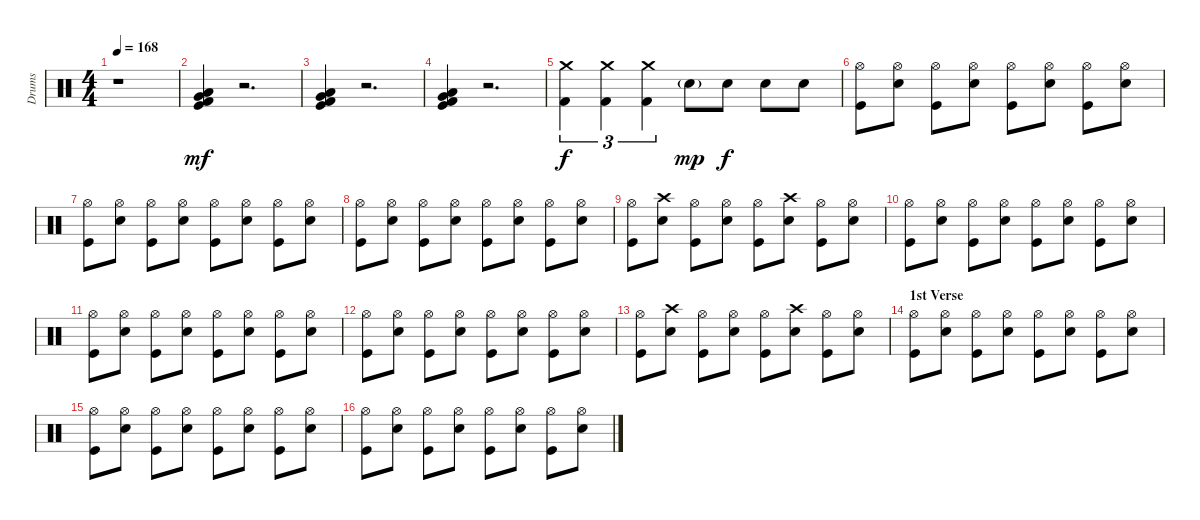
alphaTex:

\track ("Drums" "Drums") {instrument percussion}
\staff {score}
\articulation defaults
\ts (4 4)
\tempo 168
\clef neutral
\ks c
r.1{dy f} |
("Kick (hit)" "Very Low Tom (hit)" "Low Floor Tom (hit)" "Kick (hit) 2").4{dy mf} r.2{d} |
("Kick (hit)" "Very Low Tom (hit)" "Low Floor Tom (hit)" "Kick (hit) 2").4 r.2{d} |
("Kick (hit)" "Very Low Tom (hit)" "Low Floor Tom (hit)" "Kick (hit) 2").4 r.2{d} |
("Crash medium (hit)" "Kick (hit) 2").4{tu (3 2) dy f} ("Crash medium (hit)" "Kick (hit) 2").4{tu (3 2)} ("Crash medium (hit)" "Kick (hit) 2").4{tu (3 2)} "Snare (hit) 2"{g}.8{dy mp} "Snare (hit) 2".8{dy f} "Snare (hit) 2".8 "Snare (hit) 2".8 |
("Hi-Hat (open)" "Kick (hit)").8 ("Hi-Hat (open)" "Snare (hit) 2").8 ("Hi-Hat (open)" "Kick (hit)").8 ("Hi-Hat (open)" "Snare (hit) 2").8 ("Hi-Hat (open)" "Kick (hit)").8 ("Hi-Hat (open)" "Snare (hit) 2").8 ("Hi-Hat (open)" "Kick (hit)").8 ("Hi-Hat (open)" "Snare (hit) 2").8 |
("Hi-Hat (open)" "Kick (hit)").8 ("Hi-Hat (open)" "Snare (hit) 2").8 ("Hi-Hat (open)" "Kick (hit)").8 ("Hi-Hat (open)" "Snare (hit) 2").8 ("Hi-Hat (open)" "Kick (hit)").8 ("Hi-Hat (open)" "Snare (hit) 2").8 ("Hi-Hat (open)" "Kick (hit)").8 ("Hi-Hat (open)" "Snare (hit) 2").8 |
("Hi-Hat (open)" "Kick (hit)").8 ("Hi-Hat (open)" "Snare (hit) 2").8 ("Hi-Hat (open)" "Kick (hit)").8 ("Hi-Hat (open)" "Snare (hit) 2").8 ("Hi-Hat (open)" "Kick (hit)").8 ("Hi-Hat (open)" "Snare (hit) 2").8 ("Hi-Hat (open)" "Kick (hit)").8 ("Hi-Hat (open)" "Snare (hit) 2").8 |
("Hi-Hat (open)" "Kick (hit)").8 ("Crash high (hit)" "Snare (hit) 2").8 ("Hi-Hat (open)" "Kick (hit)").8 ("Hi-Hat (open)" "Snare (hit) 2").8 ("Hi-Hat (open)" "Kick (hit)").8 ("Crash high (hit)" "Snare (hit) 2").8 ("Hi-Hat (open)" "Kick (hit)").8 ("Hi-Hat (open)" "Snare (hit) 2").8 |
("Hi-Hat (open)" "Kick (hit)").8 ("Hi-Hat (open)" "Snare (hit) 2").8 ("Hi-Hat (open)" "Kick (hit)").8 ("Hi-Hat (open)" "Snare (hit) 2").8 ("Hi-Hat (open)" "Kick (hit)").8 ("Hi-Hat (open)" "Snare (hit) 2").8 ("Hi-Hat (open)" "Kick (hit)").8 ("Hi-Hat (open)" "Snare (hit) 2").8 |
("Hi-Hat (open)" "Kick (hit)").8 ("Hi-Hat (open)" "Snare (hit) 2").8 ("Hi-Hat (open)" "Kick (hit)").8 ("Hi-Hat (open)" "Snare (hit) 2").8 ("Hi-Hat (open)" "Kick (hit)").8 ("Hi-Hat (open)" "Snare (hit) 2").8 ("Hi-Hat (open)" "Kick (hit)").8 ("Hi-Hat (open)" "Snare (hit) 2").8 |
("Hi-Hat (open)" "Kick (hit)").8 ("Hi-Hat (open)" "Snare (hit) 2").8 ("Hi-Hat (open)" "Kick (hit)").8 ("Hi-Hat (open)" "Snare (hit) 2").8 ("Hi-Hat (open)" "Kick (hit)").8 ("Hi-Hat (open)" "Snare (hit) 2").8 ("Hi-Hat (open)" "Kick (hit)").8 ("Hi-Hat (open)" "Snare (hit) 2").8 |
("Hi-Hat (open)" "Kick (hit)").8 ("Crash high (hit)" "Snare (hit) 2").8 ("Hi-Hat (open)" "Kick (hit)").8 ("Hi-Hat (open)" "Snare (hit) 2").8 ("Hi-Hat (open)" "Kick (hit)").8 ("Crash high (hit)" "Snare (hit) 2").8 ("Hi-Hat (open)" "Kick (hit)").8 ("Hi-Hat (open)" "Snare (hit) 2").8 |
\section ("" "1st Verse")
("Hi-Hat (open)" "Kick (hit)").8 ("Hi-Hat (open)" "Snare (hit) 2").8 ("Hi-Hat (open)" "Kick (hit)").8 ("Hi-Hat (open)" "Snare (hit) 2").8 ("Hi-Hat (open)" "Kick (hit)").8 ("Hi-Hat (open)" "Snare (hit) 2").8 ("Hi-Hat (open)" "Kick (hit)").8 ("Hi-Hat (open)" "Snare (hit) 2").8 |
("Hi-Hat (open)" "Kick (hit)").8 ("Hi-Hat (open)" "Snare (hit) 2").8 ("Hi-Hat (open)" "Kick (hit)").8 ("Hi-Hat (open)" "Snare (hit) 2").8 ("Hi-Hat (open)" "Kick (hit)").8 ("Hi-Hat (open)" "Snare (hit) 2").8 ("Hi-Hat (open)" "Kick (hit)").8 ("Hi-Hat (open)" "Snare (hit) 2").8 |
("Hi-Hat (open)" "Kick (hit)").8 ("Hi-Hat (open)" "Snare (hit) 2").8 ("Hi-Hat (open)" "Kick (hit)").8 ("Hi-Hat (open)" "Snare (hit) 2").8 ("Hi-Hat (open)" "Kick (hit)").8 ("Hi-Hat (open)" "Snare (hit) 2").8 ("Hi-Hat (open)" "Kick (hit)").8 ("Hi-Hat (open)" "Snare (hit) 2").8
